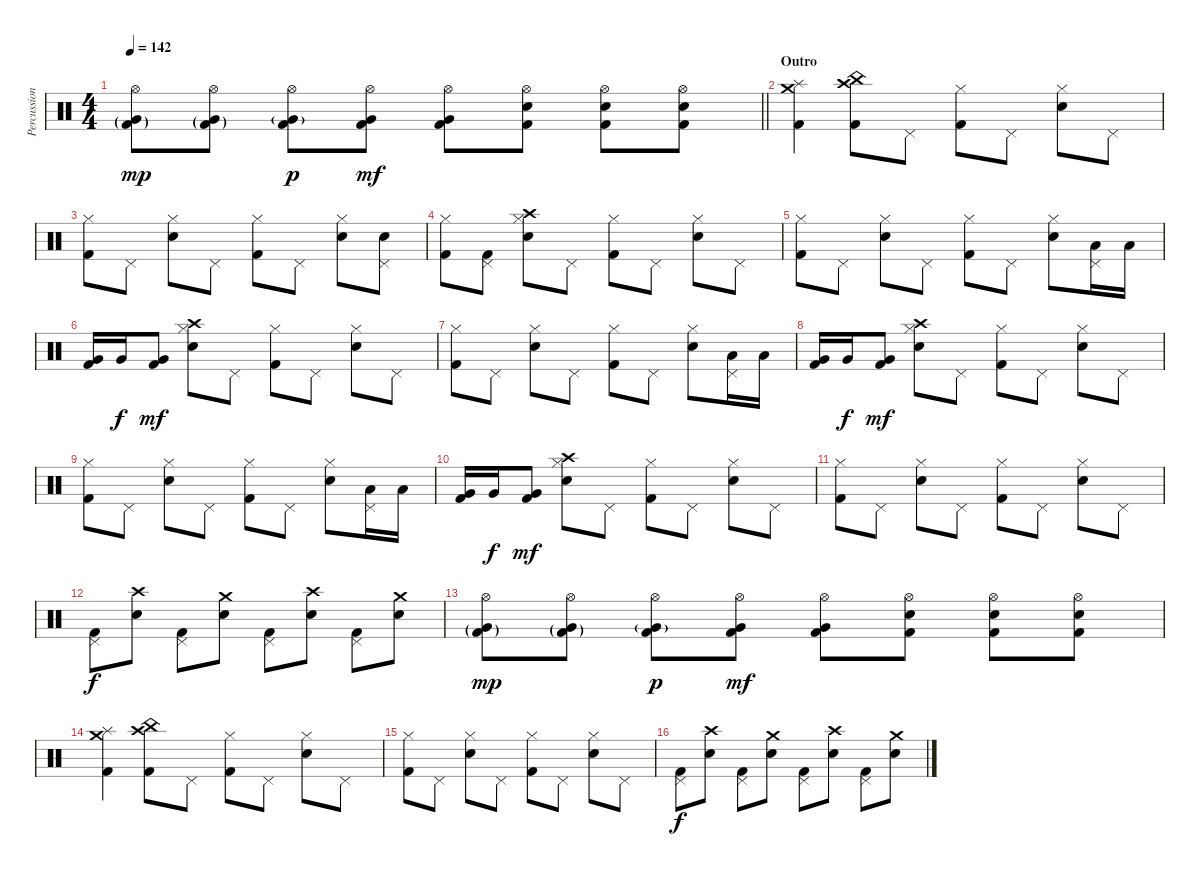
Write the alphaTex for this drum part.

\track ("Percussion" "Percussion") {instrument percussion}
\staff {score}
\articulation defaults
\ts (4 4)
\tempo 142
\clef neutral
\barLineRight lightlight
\ks c
("Hi-Hat (open)" "Very Low Tom (hit)"{g} "Kick (hit) 2"{g}).8{dy mp} ("Hi-Hat (open)" "Very Low Tom (hit)"{g} "Kick (hit) 2"{g}).8 ("Hi-Hat (open)" "Very Low Tom (hit)"{g} "Kick (hit) 2").8{dy p} ("Hi-Hat (open)" "Very Low Tom (hit)" "Kick (hit) 2").8{dy mf} ("Hi-Hat (open)" "Very Low Tom (hit)" "Kick (hit) 2").8 ("Hi-Hat (open)" "Snare (hit) 2" "Kick (hit) 2").8 ("Hi-Hat (open)" "Snare (hit) 2" "Kick (hit) 2").8 ("Hi-Hat (open)" "Snare (hit) 2" "Kick (hit) 2").8 |
\section ("" "Outro")
("Crash medium (hit)" "Splash (hit)" "Kick (hit) 2").4 ("Crash high (hit)" "China (hit)" "Kick (hit) 2").8 "Pedal Hi-Hat (hit)".8 ("Hi-Hat (closed)" "Kick (hit) 2").8 "Pedal Hi-Hat (hit)".8 ("Snare (hit) 2" "Hi-Hat (closed)").8 "Pedal Hi-Hat (hit)".8 |
("Hi-Hat (closed)" "Kick (hit) 2").8 "Pedal Hi-Hat (hit)".8 ("Snare (hit) 2" "Hi-Hat (closed)").8 "Pedal Hi-Hat (hit)".8 ("Hi-Hat (closed)" "Kick (hit) 2").8 "Pedal Hi-Hat (hit)".8 ("Snare (hit) 2" "Hi-Hat (closed)").8 ("Snare (hit) 2" "Pedal Hi-Hat (hit)").8 |
("Hi-Hat (closed)" "Kick (hit) 2").8 ("Pedal Hi-Hat (hit)" "Kick (hit) 2").8 ("Crash high (hit)" "Snare (hit) 2" "Hi-Hat (closed)").8 "Pedal Hi-Hat (hit)".8 ("Hi-Hat (closed)" "Kick (hit) 2").8 "Pedal Hi-Hat (hit)".8 ("Snare (hit) 2" "Hi-Hat (closed)").8 "Pedal Hi-Hat (hit)".8 |
("Hi-Hat (closed)" "Kick (hit) 2").8 "Pedal Hi-Hat (hit)".8 ("Snare (hit) 2" "Hi-Hat (closed)").8 "Pedal Hi-Hat (hit)".8 ("Hi-Hat (closed)" "Kick (hit) 2").8 "Pedal Hi-Hat (hit)".8 ("Snare (hit) 2" "Hi-Hat (closed)").8 ("Pedal Hi-Hat (hit)" "Low Tom (hit)").16 "Low Tom (hit)".16 |
("Very Low Tom (hit)" "Kick (hit) 2").16 "Very Low Tom (hit)".16{dy f} ("Very Low Tom (hit)" "Kick (hit) 2").8{dy mf} ("Crash high (hit)" "Snare (hit) 2" "Hi-Hat (closed)").8 "Pedal Hi-Hat (hit)".8 ("Hi-Hat (closed)" "Kick (hit) 2").8 "Pedal Hi-Hat (hit)".8 ("Snare (hit) 2" "Hi-Hat (closed)").8 "Pedal Hi-Hat (hit)".8 |
("Hi-Hat (closed)" "Kick (hit) 2").8 "Pedal Hi-Hat (hit)".8 ("Snare (hit) 2" "Hi-Hat (closed)").8 "Pedal Hi-Hat (hit)".8 ("Hi-Hat (closed)" "Kick (hit) 2").8 "Pedal Hi-Hat (hit)".8 ("Snare (hit) 2" "Hi-Hat (closed)").8 ("Pedal Hi-Hat (hit)" "Low Tom (hit)").16 "Low Tom (hit)".16 |
("Very Low Tom (hit)" "Kick (hit) 2").16 "Very Low Tom (hit)".16{dy f} ("Very Low Tom (hit)" "Kick (hit) 2").8{dy mf} ("Crash high (hit)" "Snare (hit) 2" "Hi-Hat (closed)").8 "Pedal Hi-Hat (hit)".8 ("Hi-Hat (closed)" "Kick (hit) 2").8 "Pedal Hi-Hat (hit)".8 ("Snare (hit) 2" "Hi-Hat (closed)").8 "Pedal Hi-Hat (hit)".8 |
("Hi-Hat (closed)" "Kick (hit) 2").8 "Pedal Hi-Hat (hit)".8 ("Snare (hit) 2" "Hi-Hat (closed)").8 "Pedal Hi-Hat (hit)".8 ("Hi-Hat (closed)" "Kick (hit) 2").8 "Pedal Hi-Hat (hit)".8 ("Snare (hit) 2" "Hi-Hat (closed)").8 ("Pedal Hi-Hat (hit)" "Low Tom (hit)").16 "Low Tom (hit)".16 |
("Very Low Tom (hit)" "Kick (hit) 2").16 "Very Low Tom (hit)".16{dy f} ("Very Low Tom (hit)" "Kick (hit) 2").8{dy mf} ("Crash high (hit)" "Snare (hit) 2" "Hi-Hat (closed)").8 "Pedal Hi-Hat (hit)".8 ("Hi-Hat (closed)" "Kick (hit) 2").8 "Pedal Hi-Hat (hit)".8 ("Snare (hit) 2" "Hi-Hat (closed)").8 "Pedal Hi-Hat (hit)".8 |
("Hi-Hat (closed)" "Kick (hit) 2").8 "Pedal Hi-Hat (hit)".8 ("Snare (hit) 2" "Hi-Hat (closed)").8 "Pedal Hi-Hat (hit)".8 ("Hi-Hat (closed)" "Kick (hit) 2").8 "Pedal Hi-Hat (hit)".8 ("Snare (hit) 2" "Hi-Hat (closed)").8 "Pedal Hi-Hat (hit)".8 |
("Pedal Hi-Hat (hit)" "Kick (hit) 2").8{dy f} ("Crash high (hit)" "Snare (hit) 2").8 ("Pedal Hi-Hat (hit)" "Kick (hit) 2").8 ("Crash medium (hit)" "Snare (hit) 2").8 ("Pedal Hi-Hat (hit)" "Kick (hit) 2").8 ("Crash high (hit)" "Snare (hit) 2").8 ("Pedal Hi-Hat (hit)" "Kick (hit) 2").8 ("Crash medium (hit)" "Snare (hit) 2").8 |
("Hi-Hat (open)" "Very Low Tom (hit)"{g} "Kick (hit) 2"{g}).8{dy mp} ("Hi-Hat (open)" "Very Low Tom (hit)"{g} "Kick (hit) 2"{g}).8 ("Hi-Hat (open)" "Very Low Tom (hit)"{g} "Kick (hit) 2").8{dy p} ("Hi-Hat (open)" "Very Low Tom (hit)" "Kick (hit) 2").8{dy mf} ("Hi-Hat (open)" "Very Low Tom (hit)" "Kick (hit) 2").8 ("Hi-Hat (open)" "Snare (hit) 2" "Kick (hit) 2").8 ("Hi-Hat (open)" "Snare (hit) 2" "Kick (hit) 2").8 ("Hi-Hat (open)" "Snare (hit) 2" "Kick (hit) 2").8 |
("Crash medium (hit)" "Splash (hit)" "Kick (hit) 2").4 ("Crash high (hit)" "China (hit)" "Kick (hit) 2").8 "Pedal Hi-Hat (hit)".8 ("Hi-Hat (closed)" "Kick (hit) 2").8 "Pedal Hi-Hat (hit)".8 ("Snare (hit) 2" "Hi-Hat (closed)").8 "Pedal Hi-Hat (hit)".8 |
("Hi-Hat (closed)" "Kick (hit) 2").8 "Pedal Hi-Hat (hit)".8 ("Snare (hit) 2" "Hi-Hat (closed)").8 "Pedal Hi-Hat (hit)".8 ("Hi-Hat (closed)" "Kick (hit) 2").8 "Pedal Hi-Hat (hit)".8 ("Snare (hit) 2" "Hi-Hat (closed)").8 "Pedal Hi-Hat (hit)".8 |
("Pedal Hi-Hat (hit)" "Kick (hit) 2").8{dy f} ("Crash high (hit)" "Snare (hit) 2").8 ("Pedal Hi-Hat (hit)" "Kick (hit) 2").8 ("Crash medium (hit)" "Snare (hit) 2").8 ("Pedal Hi-Hat (hit)" "Kick (hit) 2").8 ("Crash high (hit)" "Snare (hit) 2").8 ("Pedal Hi-Hat (hit)" "Kick (hit) 2").8 ("Crash medium (hit)" "Snare (hit) 2").8
